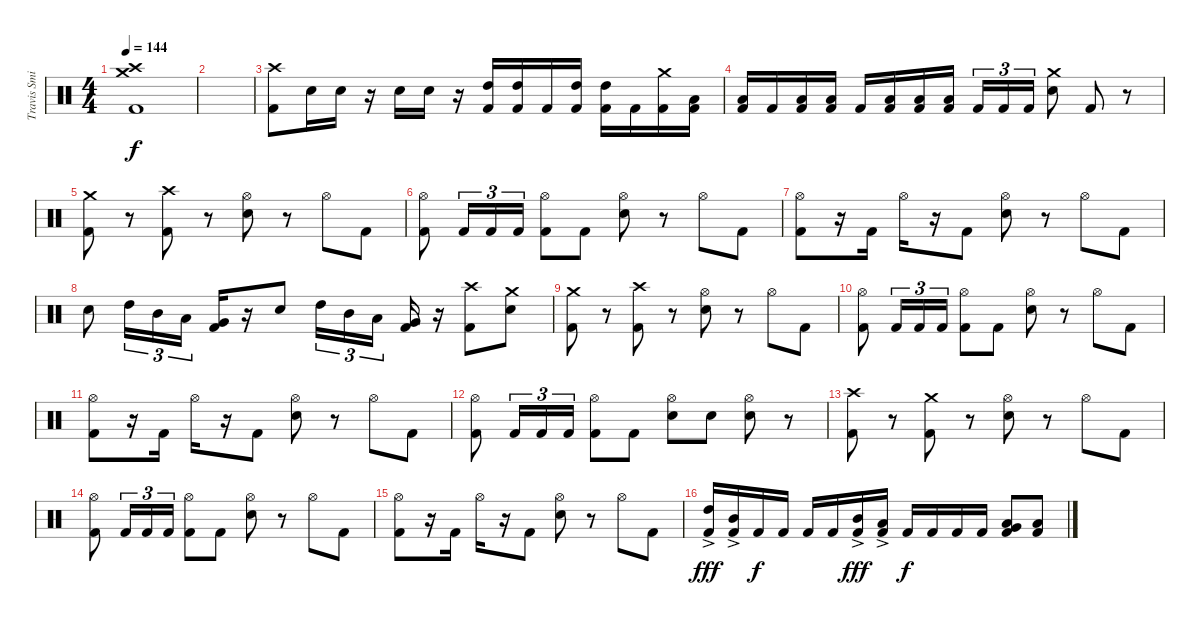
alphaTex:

\track ("Travis Smith" "Travis Smi") {instrument percussion}
\staff {score}
\articulation defaults
\ts (4 4)
\tempo 144
\clef neutral
\ks c
("Crash medium (hit)" "Crash high (hit)" "Kick (hit) 2").1{dy f} |
|
("Crash high (hit)" "Kick (hit) 2").8 "Electric Snare (hit)".16 "Electric Snare (hit)".16 r.16 "Electric Snare (hit)".16 "Electric Snare (hit)".16 r.16 ("High Tom (hit)" "Kick (hit) 2").16 ("High Tom (hit)" "Kick (hit) 2").16 "Kick (hit) 2".16 ("High Tom (hit)" "Kick (hit) 2").16 ("High Tom (hit)" "Kick (hit) 2").16 "Kick (hit) 2".16 ("Crash medium (hit)" "Kick (hit) 2").16 ("Low Tom (hit)" "Kick (hit) 2").16 |
("Low Tom (hit)" "Kick (hit) 2").16 "Kick (hit) 2".16 ("Low Tom (hit)" "Kick (hit) 2").16 ("Low Tom (hit)" "Kick (hit) 2").16 "Kick (hit) 2".16 ("Low Floor Tom (hit)" "Kick (hit) 2").16 ("Low Floor Tom (hit)" "Kick (hit) 2").16 ("Low Floor Tom (hit)" "Kick (hit) 2").16 "Kick (hit) 2".16{tu (3 2)} "Kick (hit) 2".16{tu (3 2)} "Kick (hit) 2".16{tu (3 2)} ("Crash medium (hit)" "Electric Snare (hit)").8 "Kick (hit) 2".8 r.8 |
("Crash medium (hit)" "Kick (hit) 2").8 r.8 ("Crash high (hit)" "Kick (hit) 2").8 r.8 ("Hi-Hat (open)" "Electric Snare (hit)").8 r.8 "Hi-Hat (open)".8 "Kick (hit) 2".8 |
("Hi-Hat (open)" "Kick (hit) 2").8 "Kick (hit) 2".16{tu (3 2)} "Kick (hit) 2".16{tu (3 2)} "Kick (hit) 2".16{tu (3 2)} ("Hi-Hat (open)" "Kick (hit) 2").8 "Kick (hit) 2".8 ("Hi-Hat (open)" "Electric Snare (hit)").8 r.8 "Hi-Hat (open)".8 "Kick (hit) 2".8 |
("Hi-Hat (open)" "Kick (hit) 2").8 r.16 "Kick (hit) 2".16 "Hi-Hat (open)".16 r.16 "Kick (hit) 2".8 ("Hi-Hat (open)" "Electric Snare (hit)").8 r.8 "Hi-Hat (open)".8 "Kick (hit) 2".8 |
"Electric Snare (hit)".8 "High Tom (hit)".16{tu (3 2)} "Mid Tom (hit)".16{tu (3 2)} "Low Tom (hit)".16{tu (3 2)} ("Very Low Tom (hit)" "Kick (hit) 2").16 r.16 "Electric Snare (hit)".8 "High Tom (hit)".16{tu (3 2)} "Mid Tom (hit)".16{tu (3 2)} "Low Tom (hit)".16{tu (3 2)} ("Very Low Tom (hit)" "Kick (hit) 2").16 r.16 ("Crash high (hit)" "Kick (hit) 2").8 ("Crash medium (hit)" "Electric Snare (hit)").8 |
("Crash medium (hit)" "Kick (hit) 2").8 r.8 ("Crash high (hit)" "Kick (hit) 2").8 r.8 ("Hi-Hat (open)" "Electric Snare (hit)").8 r.8 "Hi-Hat (open)".8 "Kick (hit) 2".8 |
("Hi-Hat (open)" "Kick (hit) 2").8 "Kick (hit) 2".16{tu (3 2)} "Kick (hit) 2".16{tu (3 2)} "Kick (hit) 2".16{tu (3 2)} ("Hi-Hat (open)" "Kick (hit) 2").8 "Kick (hit) 2".8 ("Hi-Hat (open)" "Electric Snare (hit)").8 r.8 "Hi-Hat (open)".8 "Kick (hit) 2".8 |
("Hi-Hat (open)" "Kick (hit) 2").8 r.16 "Kick (hit) 2".16 "Hi-Hat (open)".16 r.16 "Kick (hit) 2".8 ("Hi-Hat (open)" "Electric Snare (hit)").8 r.8 "Hi-Hat (open)".8 "Kick (hit) 2".8 |
("Hi-Hat (open)" "Kick (hit) 2").8 "Kick (hit) 2".16{tu (3 2)} "Kick (hit) 2".16{tu (3 2)} "Kick (hit) 2".16{tu (3 2)} ("Hi-Hat (open)" "Kick (hit) 2").8 "Kick (hit) 2".8 ("Hi-Hat (open)" "Electric Snare (hit)").8 "Electric Snare (hit)".8 ("Hi-Hat (open)" "Electric Snare (hit)").8 r.8 |
("Crash high (hit)" "Kick (hit) 2").8 r.8 ("Crash medium (hit)" "Kick (hit) 2").8 r.8 ("Hi-Hat (open)" "Electric Snare (hit)").8 r.8 "Hi-Hat (open)".8 "Kick (hit) 2".8 |
("Hi-Hat (open)" "Kick (hit) 2").8 "Kick (hit) 2".16{tu (3 2)} "Kick (hit) 2".16{tu (3 2)} "Kick (hit) 2".16{tu (3 2)} ("Hi-Hat (open)" "Kick (hit) 2").8 "Kick (hit) 2".8 ("Hi-Hat (open)" "Electric Snare (hit)").8 r.8 "Hi-Hat (open)".8 "Kick (hit) 2".8 |
("Hi-Hat (open)" "Kick (hit) 2").8 r.16 "Kick (hit) 2".16 "Hi-Hat (open)".16 r.16 "Kick (hit) 2".8 ("Hi-Hat (open)" "Electric Snare (hit)").8 r.8 "Hi-Hat (open)".8 "Kick (hit) 2".8 |
("High Tom (hit)"{ac} "Kick (hit) 2").16{dy fff} ("Mid Tom (hit)"{ac} "Kick (hit) 2").16 "Kick (hit) 2".16{dy f} "Kick (hit) 2".16 "Kick (hit) 2".16 "Kick (hit) 2".16 ("Mid Tom (hit)"{ac} "Kick (hit) 2").16{dy fff} ("Low Tom (hit)"{ac} "Kick (hit) 2").16 "Kick (hit) 2".16{dy f} "Kick (hit) 2".16 "Kick (hit) 2".16 "Kick (hit) 2".16 ("Very Low Tom (hit)" "Low Tom (hit)" "Kick (hit) 2").8 ("Low Floor Tom (hit)" "Kick (hit) 2").8
